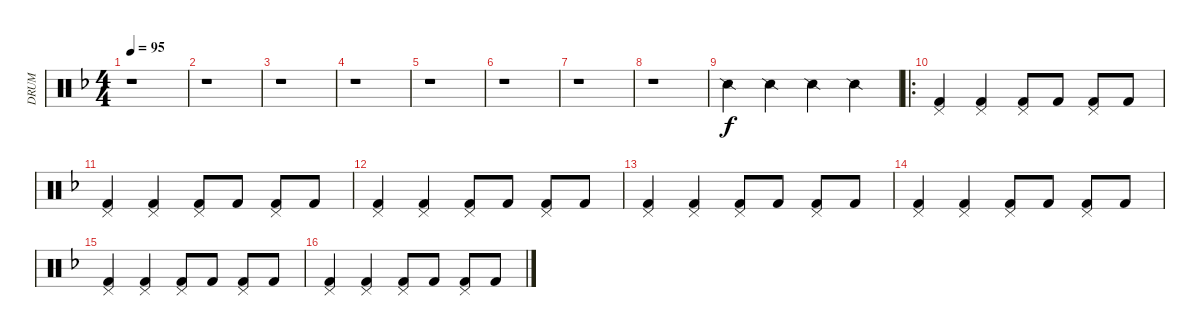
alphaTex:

\track ("DRUM" "DRUM") {instrument percussion}
\staff {score}
\articulation defaults
\ts (4 4)
\tempo 95
\clef neutral
\ks f
r.1{dy f} |
r.1 |
r.1 |
r.1 |
r.1 |
r.1 |
r.1 |
r.1 |
"Snare (side stick) 2".4 "Snare (side stick) 2".4 "Snare (side stick) 2".4 "Snare (side stick) 2".4 |
\ro
("Pedal Hi-Hat (hit)" "Kick (hit) 2").4 ("Pedal Hi-Hat (hit)" "Kick (hit) 2").4 ("Pedal Hi-Hat (hit)" "Kick (hit) 2").8 "Kick (hit) 2".8 ("Pedal Hi-Hat (hit)" "Kick (hit) 2").8 "Kick (hit) 2".8 |
("Pedal Hi-Hat (hit)" "Kick (hit) 2").4 ("Pedal Hi-Hat (hit)" "Kick (hit) 2").4 ("Pedal Hi-Hat (hit)" "Kick (hit) 2").8 "Kick (hit) 2".8 ("Pedal Hi-Hat (hit)" "Kick (hit) 2").8 "Kick (hit) 2".8 |
("Pedal Hi-Hat (hit)" "Kick (hit) 2").4 ("Pedal Hi-Hat (hit)" "Kick (hit) 2").4 ("Pedal Hi-Hat (hit)" "Kick (hit) 2").8 "Kick (hit) 2".8 ("Pedal Hi-Hat (hit)" "Kick (hit) 2").8 "Kick (hit) 2".8 |
("Pedal Hi-Hat (hit)" "Kick (hit) 2").4 ("Pedal Hi-Hat (hit)" "Kick (hit) 2").4 ("Pedal Hi-Hat (hit)" "Kick (hit) 2").8 "Kick (hit) 2".8 ("Pedal Hi-Hat (hit)" "Kick (hit) 2").8 "Kick (hit) 2".8 |
("Pedal Hi-Hat (hit)" "Kick (hit) 2").4 ("Pedal Hi-Hat (hit)" "Kick (hit) 2").4 ("Pedal Hi-Hat (hit)" "Kick (hit) 2").8 "Kick (hit) 2".8 ("Pedal Hi-Hat (hit)" "Kick (hit) 2").8 "Kick (hit) 2".8 |
("Pedal Hi-Hat (hit)" "Kick (hit) 2").4 ("Pedal Hi-Hat (hit)" "Kick (hit) 2").4 ("Pedal Hi-Hat (hit)" "Kick (hit) 2").8 "Kick (hit) 2".8 ("Pedal Hi-Hat (hit)" "Kick (hit) 2").8 "Kick (hit) 2".8 |
("Pedal Hi-Hat (hit)" "Kick (hit) 2").4 ("Pedal Hi-Hat (hit)" "Kick (hit) 2").4 ("Pedal Hi-Hat (hit)" "Kick (hit) 2").8 "Kick (hit) 2".8 ("Pedal Hi-Hat (hit)" "Kick (hit) 2").8 "Kick (hit) 2".8
